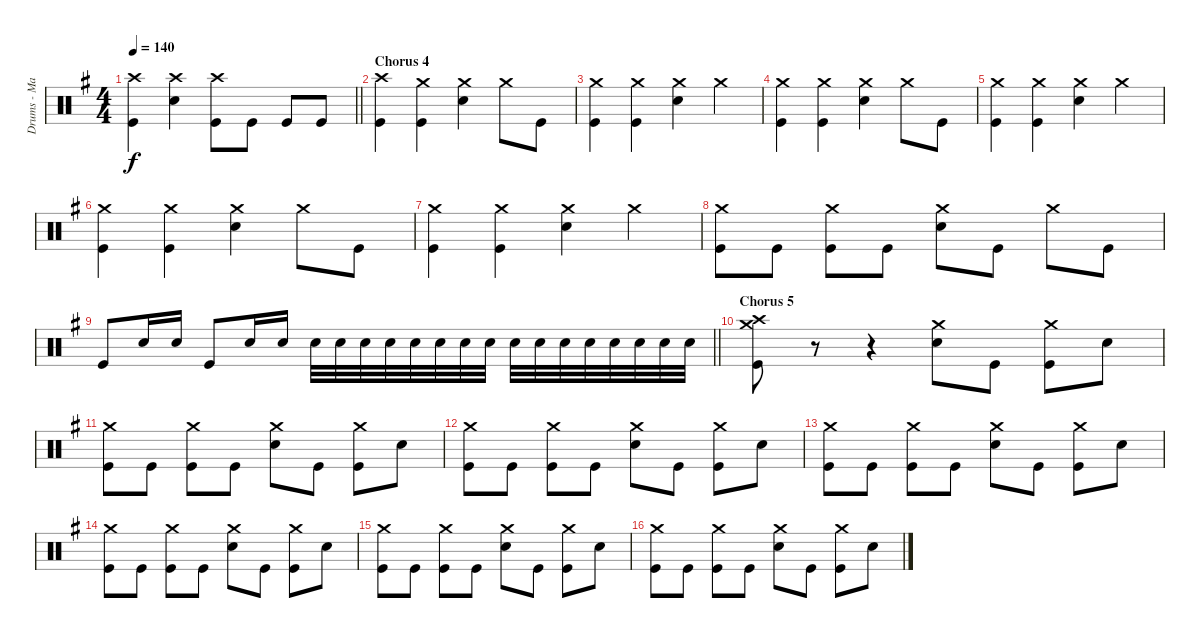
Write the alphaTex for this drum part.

\track ("Drums - Mark O'Connell" "Drums - Ma") {instrument percussion}
\staff {score}
\articulation defaults
\ts (4 4)
\tempo 140
\clef neutral
\barLineRight lightlight
\ks g
("Crash high (hit)" "Kick (hit)").4{dy f} ("Crash high (hit)" "Snare (hit) 2").4 ("Crash high (hit)" "Kick (hit)").8 "Kick (hit)".8 "Kick (hit)".8 "Kick (hit)".8 |
\section ("" "Chorus 4")
("Crash high (hit)" "Kick (hit)").4 ("Crash medium (hit)" "Kick (hit)").4 ("Crash medium (hit)" "Snare (hit) 2").4 "Crash medium (hit)".8 "Kick (hit)".8 |
("Crash medium (hit)" "Kick (hit)").4 ("Crash medium (hit)" "Kick (hit)").4 ("Crash medium (hit)" "Snare (hit) 2").4 "Crash medium (hit)".4 |
("Crash medium (hit)" "Kick (hit)").4 ("Crash medium (hit)" "Kick (hit)").4 ("Crash medium (hit)" "Snare (hit) 2").4 "Crash medium (hit)".8 "Kick (hit)".8 |
("Crash medium (hit)" "Kick (hit)").4 ("Crash medium (hit)" "Kick (hit)").4 ("Crash medium (hit)" "Snare (hit) 2").4 "Crash medium (hit)".4 |
("Crash medium (hit)" "Kick (hit)").4 ("Crash medium (hit)" "Kick (hit)").4 ("Crash medium (hit)" "Snare (hit) 2").4 "Crash medium (hit)".8 "Kick (hit)".8 |
("Crash medium (hit)" "Kick (hit)").4 ("Crash medium (hit)" "Kick (hit)").4 ("Crash medium (hit)" "Snare (hit) 2").4 "Crash medium (hit)".4 |
("Crash medium (hit)" "Kick (hit)").8 "Kick (hit)".8 ("Crash medium (hit)" "Kick (hit)").8 "Kick (hit)".8 ("Crash medium (hit)" "Snare (hit) 2").8 "Kick (hit)".8 "Crash medium (hit)".8 "Kick (hit)".8 |
\barLineRight lightlight "Kick (hit)".8 "Snare (hit) 2".16 "Snare (hit) 2".16 "Kick (hit)".8 "Snare (hit) 2".16 "Snare (hit) 2".16 "Snare (hit) 2".32 "Snare (hit) 2".32 "Snare (hit) 2".32 "Snare (hit) 2".32 "Snare (hit) 2".32 "Snare (hit) 2".32 "Snare (hit) 2".32 "Snare (hit) 2".32 "Snare (hit) 2".32 "Snare (hit) 2".32 "Snare (hit) 2".32 "Snare (hit) 2".32 "Snare (hit) 2".32 "Snare (hit) 2".32 "Snare (hit) 2".32 "Snare (hit) 2".32
|
\section ("" "Chorus 5")
("Crash high (hit)" "Crash medium (hit)" "Kick (hit)").8 r.8 r.4 ("Crash medium (hit)" "Snare (hit) 2").8 "Kick (hit)".8 ("Crash medium (hit)" "Kick (hit)").8 "Snare (hit) 2".8 |
("Crash medium (hit)" "Kick (hit)").8 "Kick (hit)".8 ("Crash medium (hit)" "Kick (hit)").8 "Kick (hit)".8 ("Crash medium (hit)" "Snare (hit) 2").8 "Kick (hit)".8 ("Crash medium (hit)" "Kick (hit)").8 "Snare (hit) 2".8 |
("Crash medium (hit)" "Kick (hit)").8 "Kick (hit)".8 ("Crash medium (hit)" "Kick (hit)").8 "Kick (hit)".8 ("Crash medium (hit)" "Snare (hit) 2").8 "Kick (hit)".8 ("Crash medium (hit)" "Kick (hit)").8 "Snare (hit) 2".8 |
("Crash medium (hit)" "Kick (hit)").8 "Kick (hit)".8 ("Crash medium (hit)" "Kick (hit)").8 "Kick (hit)".8 ("Crash medium (hit)" "Snare (hit) 2").8 "Kick (hit)".8 ("Crash medium (hit)" "Kick (hit)").8 "Snare (hit) 2".8 |
("Crash medium (hit)" "Kick (hit)").8 "Kick (hit)".8 ("Crash medium (hit)" "Kick (hit)").8 "Kick (hit)".8 ("Crash medium (hit)" "Snare (hit) 2").8 "Kick (hit)".8 ("Crash medium (hit)" "Kick (hit)").8 "Snare (hit) 2".8 |
("Crash medium (hit)" "Kick (hit)").8 "Kick (hit)".8 ("Crash medium (hit)" "Kick (hit)").8 "Kick (hit)".8 ("Crash medium (hit)" "Snare (hit) 2").8 "Kick (hit)".8 ("Crash medium (hit)" "Kick (hit)").8 "Snare (hit) 2".8 |
("Crash medium (hit)" "Kick (hit)").8 "Kick (hit)".8 ("Crash medium (hit)" "Kick (hit)").8 "Kick (hit)".8 ("Crash medium (hit)" "Snare (hit) 2").8 "Kick (hit)".8 ("Crash medium (hit)" "Kick (hit)").8 "Snare (hit) 2".8
